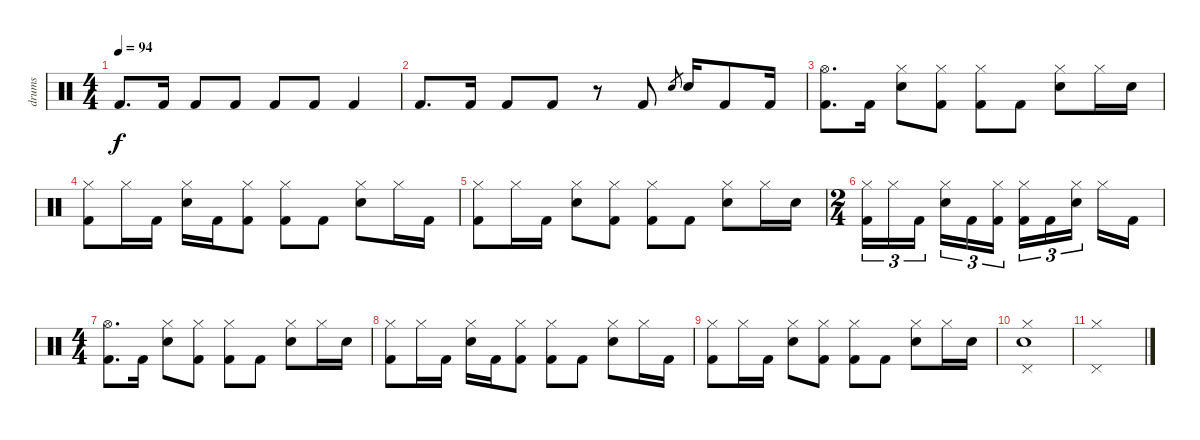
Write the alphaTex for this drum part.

\track ("drums" "drums") {instrument percussion}
\staff {score}
\articulation defaults
\ts (4 4)
\tempo 94
\clef neutral
\ks c "Kick (hit) 2".8{d dy f} "Kick (hit) 2".16 "Kick (hit) 2".8 "Kick (hit) 2".8 "Kick (hit) 2".8 "Kick (hit) 2".8 "Kick (hit) 2".4
|
"Kick (hit) 2".8{d} "Kick (hit) 2".16 "Kick (hit) 2".8 "Kick (hit) 2".8 r.8 "Kick (hit) 2".8 "Snare (hit) 2".8{gr} "Snare (hit) 2".16 "Kick (hit) 2".8 "Kick (hit) 2".16 |
("Hi-Hat (open)" "Kick (hit) 2").8{d} "Kick (hit) 2".16 ("Snare (hit) 2" "Hi-Hat (closed)").8 ("Kick (hit) 2" "Hi-Hat (closed)").8 ("Kick (hit) 2" "Hi-Hat (closed)").8 "Kick (hit) 2".8 ("Snare (hit) 2" "Hi-Hat (closed)").8 "Hi-Hat (closed)".16 "Snare (hit) 2".16 |
("Hi-Hat (closed)" "Kick (hit) 2").8 "Hi-Hat (closed)".16 "Kick (hit) 2".16 ("Hi-Hat (closed)" "Snare (hit) 2").16 "Kick (hit) 2".16 ("Hi-Hat (closed)" "Kick (hit) 2").8 ("Kick (hit) 2" "Hi-Hat (closed)").8 "Kick (hit) 2".8 ("Hi-Hat (closed)" "Snare (hit) 2").8 "Hi-Hat (closed)".16 "Kick (hit) 2".16 |
("Kick (hit) 2" "Hi-Hat (closed)").8 "Hi-Hat (closed)".16 "Kick (hit) 2".16 ("Hi-Hat (closed)" "Snare (hit) 2").8 ("Kick (hit) 2" "Hi-Hat (closed)").8 ("Kick (hit) 2" "Hi-Hat (closed)").8 "Kick (hit) 2".8 ("Hi-Hat (closed)" "Snare (hit) 2").8 "Hi-Hat (closed)".16 "Snare (hit) 2".16 |
\ts (2 4)
("Hi-Hat (closed)" "Kick (hit) 2").16{tu (3 2)} "Hi-Hat (closed)".16{tu (3 2)} "Kick (hit) 2".16{tu (3 2) beam splitsecondary} ("Hi-Hat (closed)" "Snare (hit) 2").16{tu (3 2)} "Kick (hit) 2".16{tu (3 2)} ("Hi-Hat (closed)" "Kick (hit) 2").16{tu (3 2)} ("Kick (hit) 2" "Hi-Hat (closed)").16{tu (3 2)} "Kick (hit) 2".16{tu (3 2)} ("Hi-Hat (closed)" "Snare (hit) 2").16{tu (3 2) beam splitsecondary} "Hi-Hat (closed)".16 "Kick (hit) 2".16 |
\ts (4 4)
("Hi-Hat (open)" "Kick (hit) 2").8{d} "Kick (hit) 2".16 ("Snare (hit) 2" "Hi-Hat (closed)").8 ("Kick (hit) 2" "Hi-Hat (closed)").8 ("Kick (hit) 2" "Hi-Hat (closed)").8 "Kick (hit) 2".8 ("Snare (hit) 2" "Hi-Hat (closed)").8 "Hi-Hat (closed)".16 "Snare (hit) 2".16 |
("Hi-Hat (closed)" "Kick (hit) 2").8 "Hi-Hat (closed)".16 "Kick (hit) 2".16 ("Hi-Hat (closed)" "Snare (hit) 2").16 "Kick (hit) 2".16 ("Hi-Hat (closed)" "Kick (hit) 2").8 ("Kick (hit) 2" "Hi-Hat (closed)").8 "Kick (hit) 2".8 ("Hi-Hat (closed)" "Snare (hit) 2").8 "Hi-Hat (closed)".16 "Kick (hit) 2".16 |
("Kick (hit) 2" "Hi-Hat (closed)").8 "Hi-Hat (closed)".16 "Kick (hit) 2".16 ("Hi-Hat (closed)" "Snare (hit) 2").8 ("Kick (hit) 2" "Hi-Hat (closed)").8 ("Kick (hit) 2" "Hi-Hat (closed)").8 "Kick (hit) 2".8 ("Hi-Hat (closed)" "Snare (hit) 2").8 "Hi-Hat (closed)".16 "Snare (hit) 2".16 |
("Pedal Hi-Hat (hit)" "Hi-Hat (closed)" "Snare (hit) 2").1 |
("Pedal Hi-Hat (hit)" "Hi-Hat (closed)").1
